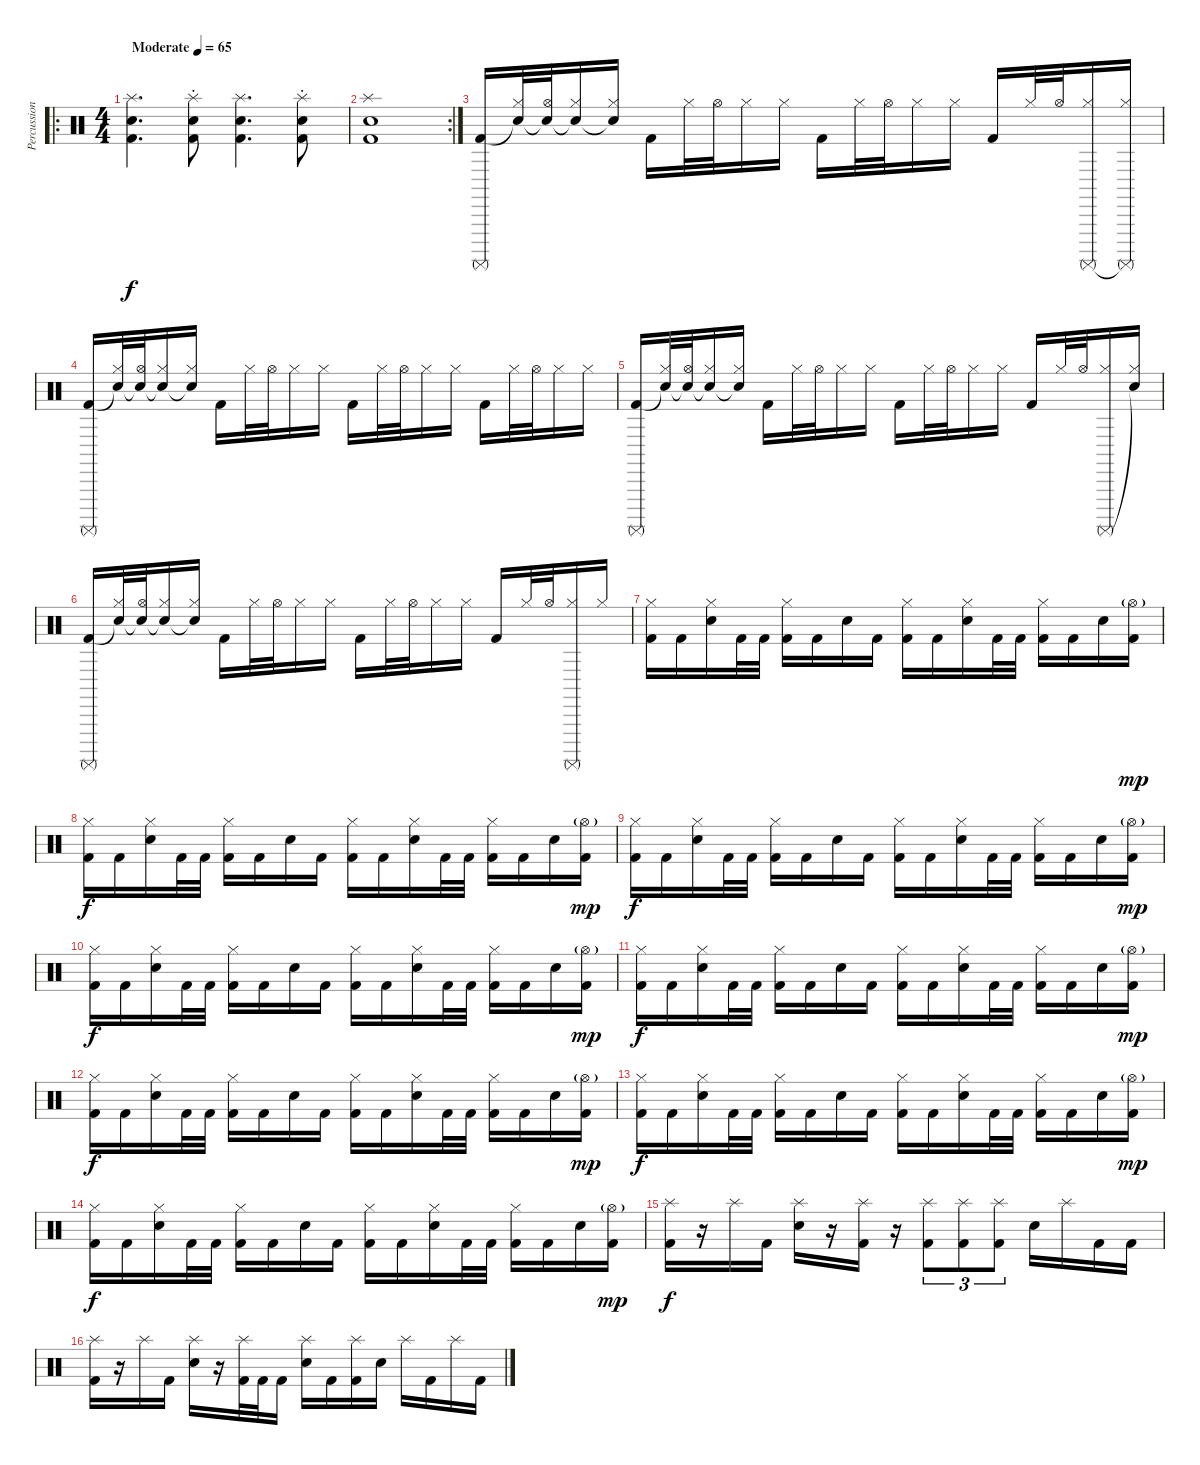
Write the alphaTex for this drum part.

\track ("Percussions" "Percussion") {instrument percussion}
\staff {score}
\articulation defaults
\ro
\ts (4 4)
\tempo (65 "Moderate")
\clef neutral
\ks c
("Splash (hit)" "Electric Snare (hit)" "Kick (hit) 2").4{d dy f} ("Splash (hit)" "Electric Snare (hit)"{st} "Kick (hit) 2"{st}).8 ("Splash (hit)" "Electric Snare (hit)" "Kick (hit) 2").4{d} ("Splash (hit)" "Electric Snare (hit)"{st} "Kick (hit) 2"{st}).8 |
\rc 2
("Splash (hit)" "Electric Snare (hit)" "Kick (hit) 2").1 |
("Surdo (mute)" "Kick (hit) 2").16 ("Hi-Hat (closed)" "Snare (hit)"{t}).32 ("Hi-Hat (open)" "Snare (hit)"{t}).32 ("Hi-Hat (closed)" "Snare (hit)"{t}).16 ("Hi-Hat (closed)" "Snare (hit)"{t}).16 "Kick (hit) 2".16 "Hi-Hat (closed)".32 "Hi-Hat (open)".32 "Hi-Hat (closed)".16 "Hi-Hat (closed)".16 "Kick (hit) 2".16 "Hi-Hat (closed)".32 "Hi-Hat (open)".32 "Hi-Hat (closed)".16 "Hi-Hat (closed)".16 "Kick (hit) 2".16 "Hi-Hat (closed)".32 "Hi-Hat (open)".32 ("Hi-Hat (closed)" "Surdo (mute)").16 ("Hi-Hat (closed)" "Surdo (mute)"{t}).16 |
("Surdo (mute)" "Kick (hit) 2").16 ("Hi-Hat (closed)" "Snare (hit)"{t}).32 ("Hi-Hat (open)" "Snare (hit)"{t}).32 ("Hi-Hat (closed)" "Snare (hit)"{t}).16 ("Hi-Hat (closed)" "Snare (hit)"{t}).16 "Kick (hit) 2".16 "Hi-Hat (closed)".32 "Hi-Hat (open)".32 "Hi-Hat (closed)".16 "Hi-Hat (closed)".16 "Kick (hit) 2".16 "Hi-Hat (closed)".32 "Hi-Hat (open)".32 "Hi-Hat (closed)".16 "Hi-Hat (closed)".16 "Kick (hit) 2".16 "Hi-Hat (closed)".32 "Hi-Hat (open)".32 "Hi-Hat (closed)".16 "Hi-Hat (closed)".16 |
("Surdo (mute)" "Kick (hit) 2").16 ("Hi-Hat (closed)" "Snare (hit)"{t}).32 ("Hi-Hat (open)" "Snare (hit)"{t}).32 ("Hi-Hat (closed)" "Snare (hit)"{t}).16 ("Hi-Hat (closed)" "Snare (hit)"{t}).16 "Kick (hit) 2".16 "Hi-Hat (closed)".32 "Hi-Hat (open)".32 "Hi-Hat (closed)".16 "Hi-Hat (closed)".16 "Kick (hit) 2".16 "Hi-Hat (closed)".32 "Hi-Hat (open)".32 "Hi-Hat (closed)".16 "Hi-Hat (closed)".16 "Kick (hit) 2".16 "Hi-Hat (closed)".32 "Hi-Hat (open)".32 ("Hi-Hat (closed)" "Surdo (mute)").16 ("Hi-Hat (closed)" "Snare (hit)"{t}).16 |
("Surdo (mute)" "Kick (hit) 2").16 ("Hi-Hat (closed)" "Snare (hit)"{t}).32 ("Hi-Hat (open)" "Snare (hit)"{t}).32 ("Hi-Hat (closed)" "Snare (hit)"{t}).16 ("Hi-Hat (closed)" "Snare (hit)"{t}).16 "Kick (hit) 2".16 "Hi-Hat (closed)".32 "Hi-Hat (open)".32 "Hi-Hat (closed)".16 "Hi-Hat (closed)".16 "Kick (hit) 2".16 "Hi-Hat (closed)".32 "Hi-Hat (open)".32 "Hi-Hat (closed)".16 "Hi-Hat (closed)".16 "Kick (hit) 2".16 "Hi-Hat (closed)".32 "Hi-Hat (open)".32 ("Hi-Hat (closed)" "Surdo (mute)").16 "Hi-Hat (closed)".16 |
("Hi-Hat (closed)" "Kick (hit) 2").16 "Kick (hit) 2".16 ("Hi-Hat (closed)" "Electric Snare (hit)").16 "Kick (hit) 2".32 "Kick (hit) 2".32 ("Hi-Hat (closed)" "Kick (hit) 2").16 "Kick (hit) 2".16 "Electric Snare (hit)".16 "Kick (hit) 2".16 ("Hi-Hat (closed)" "Kick (hit) 2").16 "Kick (hit) 2".16 ("Hi-Hat (closed)" "Electric Snare (hit)").16 "Kick (hit) 2".32 "Kick (hit) 2".32 ("Hi-Hat (closed)" "Kick (hit) 2").16 "Kick (hit) 2".16 "Electric Snare (hit)".16 ("Hi-Hat (open)"{g} "Kick (hit) 2").16{dy mp} |
("Hi-Hat (closed)" "Kick (hit) 2").16{dy f} "Kick (hit) 2".16 ("Hi-Hat (closed)" "Electric Snare (hit)").16 "Kick (hit) 2".32 "Kick (hit) 2".32 ("Hi-Hat (closed)" "Kick (hit) 2").16 "Kick (hit) 2".16 "Electric Snare (hit)".16 "Kick (hit) 2".16 ("Hi-Hat (closed)" "Kick (hit) 2").16 "Kick (hit) 2".16 ("Hi-Hat (closed)" "Electric Snare (hit)").16 "Kick (hit) 2".32 "Kick (hit) 2".32 ("Hi-Hat (closed)" "Kick (hit) 2").16 "Kick (hit) 2".16 "Electric Snare (hit)".16 ("Hi-Hat (open)"{g} "Kick (hit) 2").16{dy mp} |
("Hi-Hat (closed)" "Kick (hit) 2").16{dy f} "Kick (hit) 2".16 ("Hi-Hat (closed)" "Electric Snare (hit)").16 "Kick (hit) 2".32 "Kick (hit) 2".32 ("Hi-Hat (closed)" "Kick (hit) 2").16 "Kick (hit) 2".16 "Electric Snare (hit)".16 "Kick (hit) 2".16 ("Hi-Hat (closed)" "Kick (hit) 2").16 "Kick (hit) 2".16 ("Hi-Hat (closed)" "Electric Snare (hit)").16 "Kick (hit) 2".32 "Kick (hit) 2".32 ("Hi-Hat (closed)" "Kick (hit) 2").16 "Kick (hit) 2".16 "Electric Snare (hit)".16 ("Hi-Hat (open)"{g} "Kick (hit) 2").16{dy mp} |
("Hi-Hat (closed)" "Kick (hit) 2").16{dy f} "Kick (hit) 2".16 ("Hi-Hat (closed)" "Electric Snare (hit)").16 "Kick (hit) 2".32 "Kick (hit) 2".32 ("Hi-Hat (closed)" "Kick (hit) 2").16 "Kick (hit) 2".16 "Electric Snare (hit)".16 "Kick (hit) 2".16 ("Hi-Hat (closed)" "Kick (hit) 2").16 "Kick (hit) 2".16 ("Hi-Hat (closed)" "Electric Snare (hit)").16 "Kick (hit) 2".32 "Kick (hit) 2".32 ("Hi-Hat (closed)" "Kick (hit) 2").16 "Kick (hit) 2".16 "Electric Snare (hit)".16 ("Hi-Hat (open)"{g} "Kick (hit) 2").16{dy mp} |
("Hi-Hat (closed)" "Kick (hit) 2").16{dy f} "Kick (hit) 2".16 ("Hi-Hat (closed)" "Electric Snare (hit)").16 "Kick (hit) 2".32 "Kick (hit) 2".32 ("Hi-Hat (closed)" "Kick (hit) 2").16 "Kick (hit) 2".16 "Electric Snare (hit)".16 "Kick (hit) 2".16 ("Hi-Hat (closed)" "Kick (hit) 2").16 "Kick (hit) 2".16 ("Hi-Hat (closed)" "Electric Snare (hit)").16 "Kick (hit) 2".32 "Kick (hit) 2".32 ("Hi-Hat (closed)" "Kick (hit) 2").16 "Kick (hit) 2".16 "Electric Snare (hit)".16 ("Hi-Hat (open)"{g} "Kick (hit) 2").16{dy mp} |
("Hi-Hat (closed)" "Kick (hit) 2").16{dy f} "Kick (hit) 2".16 ("Hi-Hat (closed)" "Electric Snare (hit)").16 "Kick (hit) 2".32 "Kick (hit) 2".32 ("Hi-Hat (closed)" "Kick (hit) 2").16 "Kick (hit) 2".16 "Electric Snare (hit)".16 "Kick (hit) 2".16 ("Hi-Hat (closed)" "Kick (hit) 2").16 "Kick (hit) 2".16 ("Hi-Hat (closed)" "Electric Snare (hit)").16 "Kick (hit) 2".32 "Kick (hit) 2".32 ("Hi-Hat (closed)" "Kick (hit) 2").16 "Kick (hit) 2".16 "Electric Snare (hit)".16 ("Hi-Hat (open)"{g} "Kick (hit) 2").16{dy mp} |
("Hi-Hat (closed)" "Kick (hit) 2").16{dy f} "Kick (hit) 2".16 ("Hi-Hat (closed)" "Electric Snare (hit)").16 "Kick (hit) 2".32 "Kick (hit) 2".32 ("Hi-Hat (closed)" "Kick (hit) 2").16 "Kick (hit) 2".16 "Electric Snare (hit)".16 "Kick (hit) 2".16 ("Hi-Hat (closed)" "Kick (hit) 2").16 "Kick (hit) 2".16 ("Hi-Hat (closed)" "Electric Snare (hit)").16 "Kick (hit) 2".32 "Kick (hit) 2".32 ("Hi-Hat (closed)" "Kick (hit) 2").16 "Kick (hit) 2".16 "Electric Snare (hit)".16 ("Hi-Hat (open)"{g} "Kick (hit) 2").16{dy mp} |
("Hi-Hat (closed)" "Kick (hit) 2").16{dy f} "Kick (hit) 2".16 ("Hi-Hat (closed)" "Electric Snare (hit)").16 "Kick (hit) 2".32 "Kick (hit) 2".32 ("Hi-Hat (closed)" "Kick (hit) 2").16 "Kick (hit) 2".16 "Electric Snare (hit)".16 "Kick (hit) 2".16 ("Hi-Hat (closed)" "Kick (hit) 2").16 "Kick (hit) 2".16 ("Hi-Hat (closed)" "Electric Snare (hit)").16 "Kick (hit) 2".32 "Kick (hit) 2".32 ("Hi-Hat (closed)" "Kick (hit) 2").16 "Kick (hit) 2".16 "Electric Snare (hit)".16 ("Hi-Hat (open)"{g} "Kick (hit) 2").16{dy mp} |
("Splash (hit)" "Kick (hit) 2").16{dy f} r.16 "Splash (hit)".16 "Kick (hit) 2".16 ("Splash (hit)" "Electric Snare (hit)").16 r.16 ("Splash (hit)" "Kick (hit) 2").16 r.16 ("Splash (hit)" "Kick (hit) 2").8{tu (3 2)} ("Splash (hit)" "Kick (hit) 2").8{tu (3 2)} ("Splash (hit)" "Kick (hit) 2").8{tu (3 2)} "Electric Snare (hit)".16 "Splash (hit)".16 "Kick (hit) 2".16 "Kick (hit) 2".16 |
("Splash (hit)" "Kick (hit) 2").16 r.16 "Splash (hit)".16 "Kick (hit) 2".16 ("Splash (hit)" "Electric Snare (hit)").16 r.16 ("Splash (hit)" "Kick (hit) 2").32 "Kick (hit) 2".32 "Kick (hit) 2".16 ("Splash (hit)" "Electric Snare (hit)").16 "Kick (hit) 2".16 ("Splash (hit)" "Kick (hit) 2").16 "Electric Snare (hit)".16 "Splash (hit)".16 "Kick (hit) 2".16 "Splash (hit)".16 "Kick (hit) 2".16
